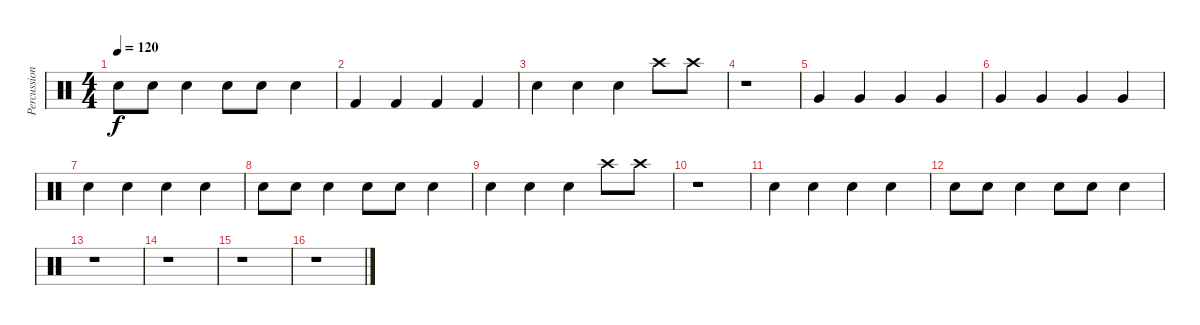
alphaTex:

\track ("Percussion" "Percussion") {instrument percussion}
\staff {score}
\articulation defaults
\ts (4 4)
\tempo 120
\clef neutral
\ks c "Snare (hit) 2".8{dy f} "Snare (hit) 2".8 "Snare (hit) 2".4 "Snare (hit) 2".8 "Snare (hit) 2".8 "Snare (hit) 2".4
|
"Kick (hit) 2".4 "Kick (hit) 2".4 "Kick (hit) 2".4 "Kick (hit) 2".4 |
"Electric Snare (hit)".4 "Electric Snare (hit)".4 "Electric Snare (hit)".4 "Crash high (hit)".8 "Crash high (hit)".8 |
r.1 |
"Very Low Tom (hit)".4 "Very Low Tom (hit)".4 "Very Low Tom (hit)".4 "Very Low Tom (hit)".4 |
"Very Low Tom (hit)".4 "Very Low Tom (hit)".4 "Very Low Tom (hit)".4 "Very Low Tom (hit)".4 |
"Snare (hit) 2".4 "Snare (hit) 2".4 "Snare (hit) 2".4 "Snare (hit) 2".4 |
"Snare (hit) 2".8 "Snare (hit) 2".8 "Snare (hit) 2".4 "Snare (hit) 2".8 "Snare (hit) 2".8 "Snare (hit) 2".4 |
"Electric Snare (hit)".4 "Electric Snare (hit)".4 "Electric Snare (hit)".4 "Crash high (hit)".8 "Crash high (hit)".8 |
r.1 |
"Snare (hit) 2".4 "Snare (hit) 2".4 "Snare (hit) 2".4 "Snare (hit) 2".4 |
"Snare (hit) 2".8 "Snare (hit) 2".8 "Snare (hit) 2".4 "Snare (hit) 2".8 "Snare (hit) 2".8 "Snare (hit) 2".4 |
r.1 |
r.1 |
r.1 |
r.1
